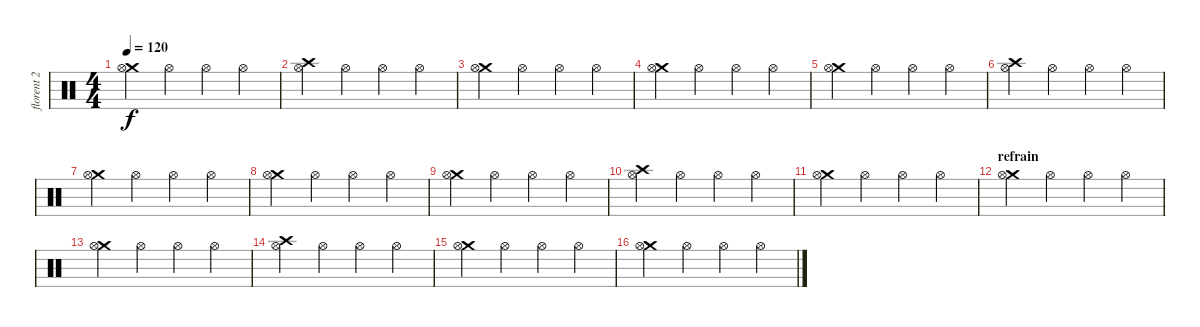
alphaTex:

\track ("florent 2" "florent 2") {instrument percussion}
\staff {score}
\articulation defaults
\ts (4 4)
\tempo 120
\clef neutral
\ks c
("Crash medium (hit)" "Hi-Hat (open)").4{dy f} "Hi-Hat (open)".4 "Hi-Hat (open)".4 "Hi-Hat (open)".4 |
("Crash high (hit)" "Hi-Hat (open)").4 "Hi-Hat (open)".4 "Hi-Hat (open)".4 "Hi-Hat (open)".4 |
("Crash medium (hit)" "Hi-Hat (open)").4 "Hi-Hat (open)".4 "Hi-Hat (open)".4 "Hi-Hat (open)".4 |
("Crash medium (hit)" "Hi-Hat (open)").4 "Hi-Hat (open)".4 "Hi-Hat (open)".4 "Hi-Hat (open)".4 |
("Crash medium (hit)" "Hi-Hat (open)").4 "Hi-Hat (open)".4 "Hi-Hat (open)".4 "Hi-Hat (open)".4 |
("Crash high (hit)" "Hi-Hat (open)").4 "Hi-Hat (open)".4 "Hi-Hat (open)".4 "Hi-Hat (open)".4 |
("Crash medium (hit)" "Hi-Hat (open)").4 "Hi-Hat (open)".4 "Hi-Hat (open)".4 "Hi-Hat (open)".4 |
("Crash medium (hit)" "Hi-Hat (open)").4 "Hi-Hat (open)".4 "Hi-Hat (open)".4 "Hi-Hat (open)".4 |
("Crash medium (hit)" "Hi-Hat (open)").4 "Hi-Hat (open)".4 "Hi-Hat (open)".4 "Hi-Hat (open)".4 |
("Crash high (hit)" "Hi-Hat (open)").4 "Hi-Hat (open)".4 "Hi-Hat (open)".4 "Hi-Hat (open)".4 |
("Crash medium (hit)" "Hi-Hat (open)").4 "Hi-Hat (open)".4 "Hi-Hat (open)".4 "Hi-Hat (open)".4 |
\section ("" "refrain ")
("Crash medium (hit)" "Hi-Hat (open)").4 "Hi-Hat (open)".4 "Hi-Hat (open)".4 "Hi-Hat (open)".4 |
("Crash medium (hit)" "Hi-Hat (open)").4 "Hi-Hat (open)".4 "Hi-Hat (open)".4 "Hi-Hat (open)".4 |
("Crash high (hit)" "Hi-Hat (open)").4 "Hi-Hat (open)".4 "Hi-Hat (open)".4 "Hi-Hat (open)".4 |
("Crash medium (hit)" "Hi-Hat (open)").4 "Hi-Hat (open)".4 "Hi-Hat (open)".4 "Hi-Hat (open)".4 |
("Crash medium (hit)" "Hi-Hat (open)").4 "Hi-Hat (open)".4 "Hi-Hat (open)".4 "Hi-Hat (open)".4
